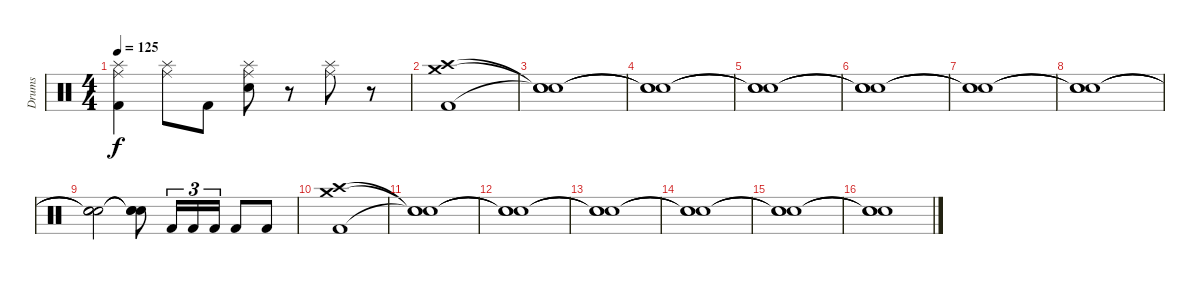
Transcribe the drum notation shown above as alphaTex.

\track ("Drums" "Drums") {instrument percussion}
\staff {score}
\articulation defaults
\ts (4 4)
\tempo 125
\clef neutral
\ks c
("Ride (middle)" "Splash (hit)" "Kick (hit) 2").4{dy f} ("Ride (middle)" "Splash (hit)").8 "Kick (hit) 2".8 ("Ride (middle)" "Snare (hit) 2" "Splash (hit)").8 r.8 ("Ride (middle)" "Splash (hit)").8 r.8 |
("Crash high (hit)" "Crash medium (hit)" "Kick (hit) 2").1 |
("Snare (hit)"{t} "Snare (hit)"{t} "Snare (hit)"{t}).1 |
("Snare (hit)"{t} "Snare (hit)"{t} "Snare (hit)"{t}).1 |
("Snare (hit)"{t} "Snare (hit)"{t} "Snare (hit)"{t}).1 |
("Snare (hit)"{t} "Snare (hit)"{t} "Snare (hit)"{t}).1 |
("Snare (hit)"{t} "Snare (hit)"{t} "Snare (hit)"{t}).1 |
("Snare (hit)"{t} "Snare (hit)"{t} "Snare (hit)"{t}).1 |
("Snare (hit)"{t} "Snare (hit)"{t} "Snare (hit)"{t}).2 ("Snare (hit)"{t} "Snare (hit)"{t} "Snare (hit)"{t}).8 "Kick (hit) 2".16{tu (3 2)} "Kick (hit) 2".16{tu (3 2)} "Kick (hit) 2".16{tu (3 2)} "Kick (hit) 2".8 "Kick (hit) 2".8 |
("Crash medium (hit)" "Crash high (hit)" "Kick (hit) 2").1 |
("Snare (hit)"{t} "Snare (hit)"{t} "Snare (hit)"{t}).1 |
("Snare (hit)"{t} "Snare (hit)"{t} "Snare (hit)"{t}).1 |
("Snare (hit)"{t} "Snare (hit)"{t} "Snare (hit)"{t}).1 |
("Snare (hit)"{t} "Snare (hit)"{t} "Snare (hit)"{t}).1 |
("Snare (hit)"{t} "Snare (hit)"{t} "Snare (hit)"{t}).1 |
("Snare (hit)"{t} "Snare (hit)"{t} "Snare (hit)"{t}).1
